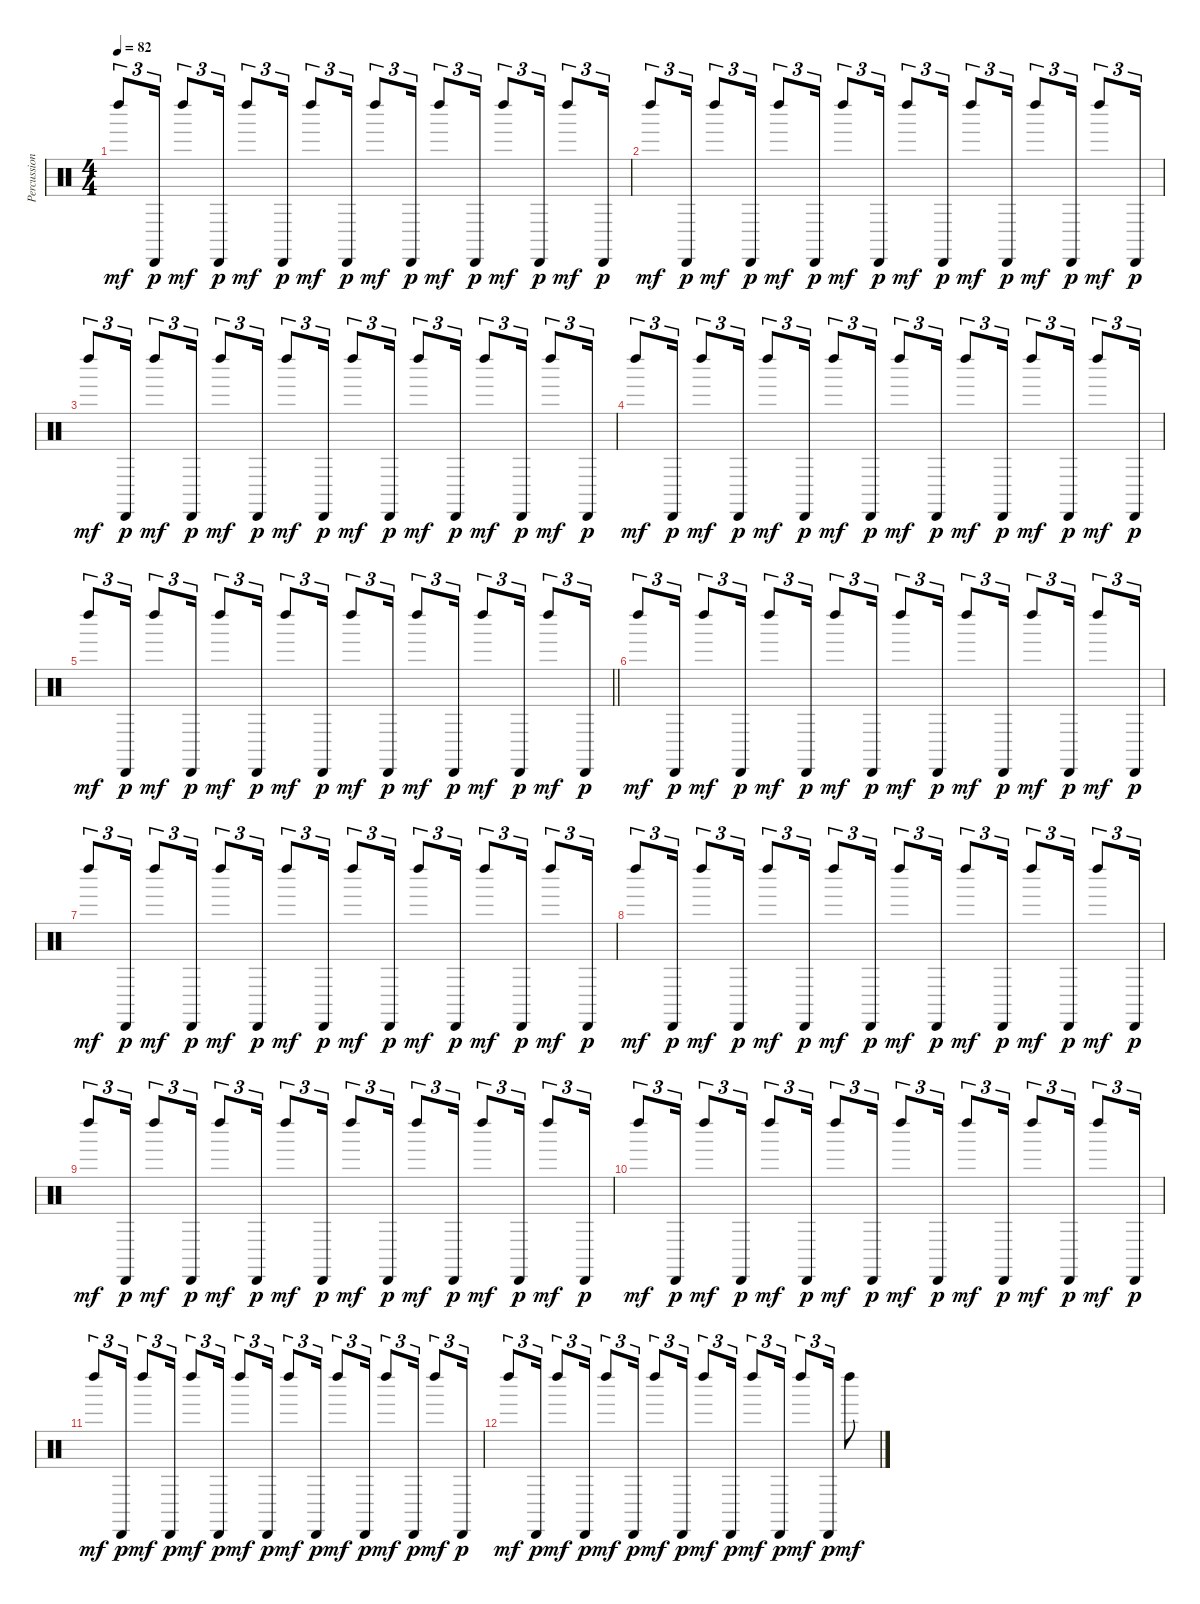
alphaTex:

\track ("Percussion" "Percussion") {instrument percussion}
\staff {score}
\articulation defaults
\ts (4 4)
\tempo 82
\clef neutral
\ks c "Left Maraca (hit)".8{tu (3 2) dy mf} "Cabasa (hit)".16{tu (3 2) dy p} "Left Maraca (hit)".8{tu (3 2) dy mf} "Cabasa (hit)".16{tu (3 2) dy p} "Left Maraca (hit)".8{tu (3 2) dy mf} "Cabasa (hit)".16{tu (3 2) dy p} "Left Maraca (hit)".8{tu (3 2) dy mf} "Cabasa (hit)".16{tu (3 2) dy p} "Left Maraca (hit)".8{tu (3 2) dy mf} "Cabasa (hit)".16{tu (3 2) dy p} "Left Maraca (hit)".8{tu (3 2) dy mf} "Cabasa (hit)".16{tu (3 2) dy p} "Left Maraca (hit)".8{tu (3 2) dy mf} "Cabasa (hit)".16{tu (3 2) dy p} "Left Maraca (hit)".8{tu (3 2) dy mf} "Cabasa (hit)".16{tu (3 2) dy p}
|
"Left Maraca (hit)".8{tu (3 2) dy mf} "Cabasa (hit)".16{tu (3 2) dy p} "Left Maraca (hit)".8{tu (3 2) dy mf} "Cabasa (hit)".16{tu (3 2) dy p} "Left Maraca (hit)".8{tu (3 2) dy mf} "Cabasa (hit)".16{tu (3 2) dy p} "Left Maraca (hit)".8{tu (3 2) dy mf} "Cabasa (hit)".16{tu (3 2) dy p} "Left Maraca (hit)".8{tu (3 2) dy mf} "Cabasa (hit)".16{tu (3 2) dy p} "Left Maraca (hit)".8{tu (3 2) dy mf} "Cabasa (hit)".16{tu (3 2) dy p} "Left Maraca (hit)".8{tu (3 2) dy mf} "Cabasa (hit)".16{tu (3 2) dy p} "Left Maraca (hit)".8{tu (3 2) dy mf} "Cabasa (hit)".16{tu (3 2) dy p} |
"Left Maraca (hit)".8{tu (3 2) dy mf} "Cabasa (hit)".16{tu (3 2) dy p} "Left Maraca (hit)".8{tu (3 2) dy mf} "Cabasa (hit)".16{tu (3 2) dy p} "Left Maraca (hit)".8{tu (3 2) dy mf} "Cabasa (hit)".16{tu (3 2) dy p} "Left Maraca (hit)".8{tu (3 2) dy mf} "Cabasa (hit)".16{tu (3 2) dy p} "Left Maraca (hit)".8{tu (3 2) dy mf} "Cabasa (hit)".16{tu (3 2) dy p} "Left Maraca (hit)".8{tu (3 2) dy mf} "Cabasa (hit)".16{tu (3 2) dy p} "Left Maraca (hit)".8{tu (3 2) dy mf} "Cabasa (hit)".16{tu (3 2) dy p} "Left Maraca (hit)".8{tu (3 2) dy mf} "Cabasa (hit)".16{tu (3 2) dy p} |
"Left Maraca (hit)".8{tu (3 2) dy mf} "Cabasa (hit)".16{tu (3 2) dy p} "Left Maraca (hit)".8{tu (3 2) dy mf} "Cabasa (hit)".16{tu (3 2) dy p} "Left Maraca (hit)".8{tu (3 2) dy mf} "Cabasa (hit)".16{tu (3 2) dy p} "Left Maraca (hit)".8{tu (3 2) dy mf} "Cabasa (hit)".16{tu (3 2) dy p} "Left Maraca (hit)".8{tu (3 2) dy mf} "Cabasa (hit)".16{tu (3 2) dy p} "Left Maraca (hit)".8{tu (3 2) dy mf} "Cabasa (hit)".16{tu (3 2) dy p} "Left Maraca (hit)".8{tu (3 2) dy mf} "Cabasa (hit)".16{tu (3 2) dy p} "Left Maraca (hit)".8{tu (3 2) dy mf} "Cabasa (hit)".16{tu (3 2) dy p} |
\barLineRight lightlight "Left Maraca (hit)".8{tu (3 2) dy mf} "Cabasa (hit)".16{tu (3 2) dy p} "Left Maraca (hit)".8{tu (3 2) dy mf} "Cabasa (hit)".16{tu (3 2) dy p} "Left Maraca (hit)".8{tu (3 2) dy mf} "Cabasa (hit)".16{tu (3 2) dy p} "Left Maraca (hit)".8{tu (3 2) dy mf} "Cabasa (hit)".16{tu (3 2) dy p} "Left Maraca (hit)".8{tu (3 2) dy mf} "Cabasa (hit)".16{tu (3 2) dy p} "Left Maraca (hit)".8{tu (3 2) dy mf} "Cabasa (hit)".16{tu (3 2) dy p} "Left Maraca (hit)".8{tu (3 2) dy mf} "Cabasa (hit)".16{tu (3 2) dy p} "Left Maraca (hit)".8{tu (3 2) dy mf} "Cabasa (hit)".16{tu (3 2) dy p}
|
\section ("" "")
"Left Maraca (hit)".8{tu (3 2) dy mf} "Cabasa (hit)".16{tu (3 2) dy p} "Left Maraca (hit)".8{tu (3 2) dy mf} "Cabasa (hit)".16{tu (3 2) dy p} "Left Maraca (hit)".8{tu (3 2) dy mf} "Cabasa (hit)".16{tu (3 2) dy p} "Left Maraca (hit)".8{tu (3 2) dy mf} "Cabasa (hit)".16{tu (3 2) dy p} "Left Maraca (hit)".8{tu (3 2) dy mf} "Cabasa (hit)".16{tu (3 2) dy p} "Left Maraca (hit)".8{tu (3 2) dy mf} "Cabasa (hit)".16{tu (3 2) dy p} "Left Maraca (hit)".8{tu (3 2) dy mf} "Cabasa (hit)".16{tu (3 2) dy p} "Left Maraca (hit)".8{tu (3 2) dy mf} "Cabasa (hit)".16{tu (3 2) dy p} |
"Left Maraca (hit)".8{tu (3 2) dy mf} "Cabasa (hit)".16{tu (3 2) dy p} "Left Maraca (hit)".8{tu (3 2) dy mf} "Cabasa (hit)".16{tu (3 2) dy p} "Left Maraca (hit)".8{tu (3 2) dy mf} "Cabasa (hit)".16{tu (3 2) dy p} "Left Maraca (hit)".8{tu (3 2) dy mf} "Cabasa (hit)".16{tu (3 2) dy p} "Left Maraca (hit)".8{tu (3 2) dy mf} "Cabasa (hit)".16{tu (3 2) dy p} "Left Maraca (hit)".8{tu (3 2) dy mf} "Cabasa (hit)".16{tu (3 2) dy p} "Left Maraca (hit)".8{tu (3 2) dy mf} "Cabasa (hit)".16{tu (3 2) dy p} "Left Maraca (hit)".8{tu (3 2) dy mf} "Cabasa (hit)".16{tu (3 2) dy p} |
"Left Maraca (hit)".8{tu (3 2) dy mf} "Cabasa (hit)".16{tu (3 2) dy p} "Left Maraca (hit)".8{tu (3 2) dy mf} "Cabasa (hit)".16{tu (3 2) dy p} "Left Maraca (hit)".8{tu (3 2) dy mf} "Cabasa (hit)".16{tu (3 2) dy p} "Left Maraca (hit)".8{tu (3 2) dy mf} "Cabasa (hit)".16{tu (3 2) dy p} "Left Maraca (hit)".8{tu (3 2) dy mf} "Cabasa (hit)".16{tu (3 2) dy p} "Left Maraca (hit)".8{tu (3 2) dy mf} "Cabasa (hit)".16{tu (3 2) dy p} "Left Maraca (hit)".8{tu (3 2) dy mf} "Cabasa (hit)".16{tu (3 2) dy p} "Left Maraca (hit)".8{tu (3 2) dy mf} "Cabasa (hit)".16{tu (3 2) dy p} |
"Left Maraca (hit)".8{tu (3 2) dy mf} "Cabasa (hit)".16{tu (3 2) dy p} "Left Maraca (hit)".8{tu (3 2) dy mf} "Cabasa (hit)".16{tu (3 2) dy p} "Left Maraca (hit)".8{tu (3 2) dy mf} "Cabasa (hit)".16{tu (3 2) dy p} "Left Maraca (hit)".8{tu (3 2) dy mf} "Cabasa (hit)".16{tu (3 2) dy p} "Left Maraca (hit)".8{tu (3 2) dy mf} "Cabasa (hit)".16{tu (3 2) dy p} "Left Maraca (hit)".8{tu (3 2) dy mf} "Cabasa (hit)".16{tu (3 2) dy p} "Left Maraca (hit)".8{tu (3 2) dy mf} "Cabasa (hit)".16{tu (3 2) dy p} "Left Maraca (hit)".8{tu (3 2) dy mf} "Cabasa (hit)".16{tu (3 2) dy p} |
"Left Maraca (hit)".8{tu (3 2) dy mf} "Cabasa (hit)".16{tu (3 2) dy p} "Left Maraca (hit)".8{tu (3 2) dy mf} "Cabasa (hit)".16{tu (3 2) dy p} "Left Maraca (hit)".8{tu (3 2) dy mf} "Cabasa (hit)".16{tu (3 2) dy p} "Left Maraca (hit)".8{tu (3 2) dy mf} "Cabasa (hit)".16{tu (3 2) dy p} "Left Maraca (hit)".8{tu (3 2) dy mf} "Cabasa (hit)".16{tu (3 2) dy p} "Left Maraca (hit)".8{tu (3 2) dy mf} "Cabasa (hit)".16{tu (3 2) dy p} "Left Maraca (hit)".8{tu (3 2) dy mf} "Cabasa (hit)".16{tu (3 2) dy p} "Left Maraca (hit)".8{tu (3 2) dy mf} "Cabasa (hit)".16{tu (3 2) dy p} |
"Left Maraca (hit)".8{tu (3 2) dy mf} "Cabasa (hit)".16{tu (3 2) dy p} "Left Maraca (hit)".8{tu (3 2) dy mf} "Cabasa (hit)".16{tu (3 2) dy p} "Left Maraca (hit)".8{tu (3 2) dy mf} "Cabasa (hit)".16{tu (3 2) dy p} "Left Maraca (hit)".8{tu (3 2) dy mf} "Cabasa (hit)".16{tu (3 2) dy p} "Left Maraca (hit)".8{tu (3 2) dy mf} "Cabasa (hit)".16{tu (3 2) dy p} "Left Maraca (hit)".8{tu (3 2) dy mf} "Cabasa (hit)".16{tu (3 2) dy p} "Left Maraca (hit)".8{tu (3 2) dy mf} "Cabasa (hit)".16{tu (3 2) dy p} "Left Maraca (hit)".8{tu (3 2) dy mf} "Cabasa (hit)".16{tu (3 2) dy p} |
"Left Maraca (hit)".8{tu (3 2) dy mf} "Cabasa (hit)".16{tu (3 2) dy p} "Left Maraca (hit)".8{tu (3 2) dy mf} "Cabasa (hit)".16{tu (3 2) dy p} "Left Maraca (hit)".8{tu (3 2) dy mf} "Cabasa (hit)".16{tu (3 2) dy p} "Left Maraca (hit)".8{tu (3 2) dy mf} "Cabasa (hit)".16{tu (3 2) dy p} "Left Maraca (hit)".8{tu (3 2) dy mf} "Cabasa (hit)".16{tu (3 2) dy p} "Left Maraca (hit)".8{tu (3 2) dy mf} "Cabasa (hit)".16{tu (3 2) dy p} "Left Maraca (hit)".8{tu (3 2) dy mf} "Cabasa (hit)".16{tu (3 2) dy p} "Left Maraca (hit)".8{dy mf}
